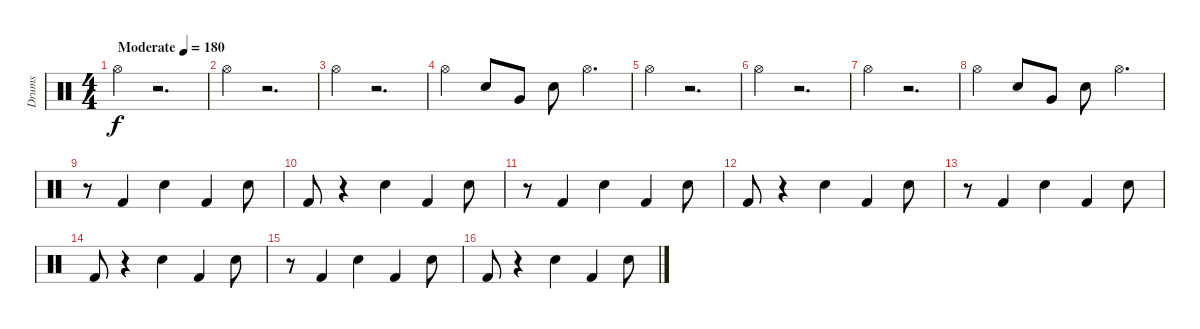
\track ("Drums" "Drums") {instrument percussion}
\staff {score}
\articulation defaults
\ts (4 4)
\tempo (180 "Moderate")
\clef neutral
\ks c "Hi-Hat (open)".4{dy f}
r.2{d} |
"Hi-Hat (open)".4 r.2{d} |
"Hi-Hat (open)".4 r.2{d} |
"Hi-Hat (open)".4 "Electric Snare (hit)".8 "Very Low Tom (hit)".8 "Snare (hit) 2".8 "Hi-Hat (open)".4{d} |
"Hi-Hat (open)".4 r.2{d} |
"Hi-Hat (open)".4 r.2{d} |
"Hi-Hat (open)".4 r.2{d} |
"Hi-Hat (open)".4 "Electric Snare (hit)".8 "Very Low Tom (hit)".8 "Snare (hit) 2".8 "Hi-Hat (open)".4{d} |
r.8 "Kick (hit) 2".4 "Snare (hit) 2".4 "Kick (hit) 2".4 "Snare (hit) 2".8 |
"Kick (hit) 2".8 r.4 "Snare (hit) 2".4 "Kick (hit) 2".4 "Snare (hit) 2".8 |
r.8 "Kick (hit) 2".4 "Snare (hit) 2".4 "Kick (hit) 2".4 "Snare (hit) 2".8 |
"Kick (hit) 2".8 r.4 "Snare (hit) 2".4 "Kick (hit) 2".4 "Snare (hit) 2".8 |
r.8 "Kick (hit) 2".4 "Snare (hit) 2".4 "Kick (hit) 2".4 "Snare (hit) 2".8 |
"Kick (hit) 2".8 r.4 "Snare (hit) 2".4 "Kick (hit) 2".4 "Snare (hit) 2".8 |
r.8 "Kick (hit) 2".4 "Snare (hit) 2".4 "Kick (hit) 2".4 "Snare (hit) 2".8 |
"Kick (hit) 2".8 r.4 "Snare (hit) 2".4 "Kick (hit) 2".4 "Snare (hit) 2".8
